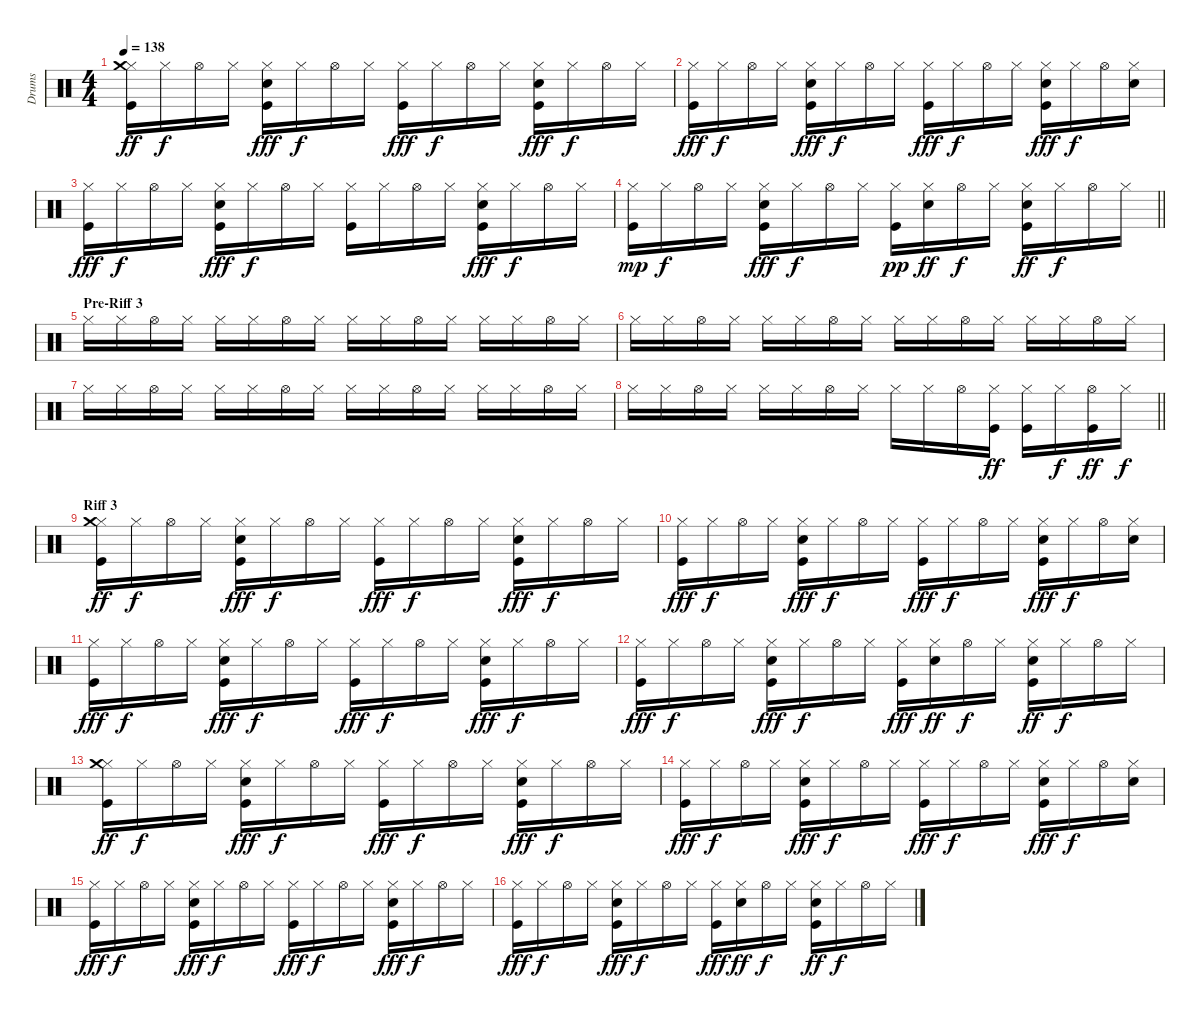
\track ("Drums" "Drums") {instrument percussion}
\staff {score}
\articulation defaults
\ts (4 4)
\tempo 138
\clef neutral
\ks c
("Kick (hit)" "Hi-Hat (closed)" "Crash medium (hit)").16{dy ff} "Hi-Hat (closed)".16{dy f} "Hi-Hat (open)".16 "Hi-Hat (closed)".16 ("Kick (hit)" "Electric Snare (hit)" "Hi-Hat (closed)").16{dy fff} "Hi-Hat (closed)".16{dy f} "Hi-Hat (open)".16 "Hi-Hat (closed)".16 ("Kick (hit)" "Hi-Hat (closed)").16{dy fff} "Hi-Hat (closed)".16{dy f} "Hi-Hat (open)".16 "Hi-Hat (closed)".16 ("Kick (hit)" "Electric Snare (hit)" "Hi-Hat (closed)").16{dy fff} "Hi-Hat (closed)".16{dy f} "Hi-Hat (open)".16 "Hi-Hat (closed)".16 |
("Kick (hit)" "Hi-Hat (closed)").16{dy fff} "Hi-Hat (closed)".16{dy f} "Hi-Hat (open)".16 "Hi-Hat (closed)".16 ("Kick (hit)" "Electric Snare (hit)" "Hi-Hat (closed)").16{dy fff} "Hi-Hat (closed)".16{dy f} "Hi-Hat (open)".16 "Hi-Hat (closed)".16 ("Kick (hit)" "Hi-Hat (closed)").16{dy fff} "Hi-Hat (closed)".16{dy f} "Hi-Hat (open)".16 "Hi-Hat (closed)".16 ("Kick (hit)" "Electric Snare (hit)" "Hi-Hat (closed)").16{dy fff} "Hi-Hat (closed)".16{dy f} "Hi-Hat (open)".16 ("Electric Snare (hit)" "Hi-Hat (closed)").16 |
("Kick (hit)" "Hi-Hat (closed)").16{dy fff} "Hi-Hat (closed)".16{dy f} "Hi-Hat (open)".16 "Hi-Hat (closed)".16 ("Kick (hit)" "Electric Snare (hit)" "Hi-Hat (closed)").16{dy fff} "Hi-Hat (closed)".16{dy f} "Hi-Hat (open)".16 "Hi-Hat (closed)".16 ("Kick (hit)" "Hi-Hat (closed)").16 "Hi-Hat (closed)".16 "Hi-Hat (open)".16 "Hi-Hat (closed)".16 ("Kick (hit)" "Electric Snare (hit)" "Hi-Hat (closed)").16{dy fff} "Hi-Hat (closed)".16{dy f} "Hi-Hat (open)".16 "Hi-Hat (closed)".16 |
\barLineRight lightlight
("Kick (hit)" "Hi-Hat (closed)").16{dy mp} "Hi-Hat (closed)".16{dy f} "Hi-Hat (open)".16 "Hi-Hat (closed)".16 ("Kick (hit)" "Electric Snare (hit)" "Hi-Hat (closed)").16{dy fff} "Hi-Hat (closed)".16{dy f} "Hi-Hat (open)".16 "Hi-Hat (closed)".16 ("Kick (hit)" "Hi-Hat (closed)").16{dy pp} ("Electric Snare (hit)" "Hi-Hat (closed)").16{dy ff} "Hi-Hat (open)".16{dy f} "Hi-Hat (closed)".16 ("Kick (hit)" "Electric Snare (hit)" "Hi-Hat (closed)").16{dy ff} "Hi-Hat (closed)".16{dy f} "Hi-Hat (open)".16 "Hi-Hat (closed)".16 |
\section ("" "Pre-Riff 3")
"Hi-Hat (closed)".16 "Hi-Hat (closed)".16 "Hi-Hat (open)".16 "Hi-Hat (closed)".16 "Hi-Hat (closed)".16 "Hi-Hat (closed)".16 "Hi-Hat (open)".16 "Hi-Hat (closed)".16 "Hi-Hat (closed)".16 "Hi-Hat (closed)".16 "Hi-Hat (open)".16 "Hi-Hat (closed)".16 "Hi-Hat (closed)".16 "Hi-Hat (closed)".16 "Hi-Hat (open)".16 "Hi-Hat (closed)".16 |
"Hi-Hat (closed)".16 "Hi-Hat (closed)".16 "Hi-Hat (open)".16 "Hi-Hat (closed)".16 "Hi-Hat (closed)".16 "Hi-Hat (closed)".16 "Hi-Hat (open)".16 "Hi-Hat (closed)".16 "Hi-Hat (closed)".16 "Hi-Hat (closed)".16 "Hi-Hat (open)".16 "Hi-Hat (closed)".16 "Hi-Hat (closed)".16 "Hi-Hat (closed)".16 "Hi-Hat (open)".16 "Hi-Hat (closed)".16 |
"Hi-Hat (closed)".16 "Hi-Hat (closed)".16 "Hi-Hat (open)".16 "Hi-Hat (closed)".16 "Hi-Hat (closed)".16 "Hi-Hat (closed)".16 "Hi-Hat (open)".16 "Hi-Hat (closed)".16 "Hi-Hat (closed)".16 "Hi-Hat (closed)".16 "Hi-Hat (open)".16 "Hi-Hat (closed)".16 "Hi-Hat (closed)".16 "Hi-Hat (closed)".16 "Hi-Hat (open)".16 "Hi-Hat (closed)".16 |
\barLineRight lightlight "Hi-Hat (closed)".16 "Hi-Hat (closed)".16 "Hi-Hat (open)".16 "Hi-Hat (closed)".16 "Hi-Hat (closed)".16 "Hi-Hat (closed)".16 "Hi-Hat (open)".16 "Hi-Hat (closed)".16 "Hi-Hat (closed)".16 "Hi-Hat (closed)".16 "Hi-Hat (open)".16
("Kick (hit)" "Hi-Hat (closed)").16{dy ff} ("Kick (hit)" "Hi-Hat (closed)").16 "Hi-Hat (closed)".16{dy f} ("Kick (hit)" "Hi-Hat (open)").16{dy ff} "Hi-Hat (closed)".16{dy f} |
\section ("" "Riff 3")
("Kick (hit)" "Hi-Hat (closed)" "Crash medium (hit)").16{dy ff} "Hi-Hat (closed)".16{dy f} "Hi-Hat (open)".16 "Hi-Hat (closed)".16 ("Kick (hit)" "Electric Snare (hit)" "Hi-Hat (closed)").16{dy fff} "Hi-Hat (closed)".16{dy f} "Hi-Hat (open)".16 "Hi-Hat (closed)".16 ("Kick (hit)" "Hi-Hat (closed)").16{dy fff} "Hi-Hat (closed)".16{dy f} "Hi-Hat (open)".16 "Hi-Hat (closed)".16 ("Kick (hit)" "Electric Snare (hit)" "Hi-Hat (closed)").16{dy fff} "Hi-Hat (closed)".16{dy f} "Hi-Hat (open)".16 "Hi-Hat (closed)".16 |
("Kick (hit)" "Hi-Hat (closed)").16{dy fff} "Hi-Hat (closed)".16{dy f} "Hi-Hat (open)".16 "Hi-Hat (closed)".16 ("Kick (hit)" "Electric Snare (hit)" "Hi-Hat (closed)").16{dy fff} "Hi-Hat (closed)".16{dy f} "Hi-Hat (open)".16 "Hi-Hat (closed)".16 ("Kick (hit)" "Hi-Hat (closed)").16{dy fff} "Hi-Hat (closed)".16{dy f} "Hi-Hat (open)".16 "Hi-Hat (closed)".16 ("Kick (hit)" "Electric Snare (hit)" "Hi-Hat (closed)").16{dy fff} "Hi-Hat (closed)".16{dy f} "Hi-Hat (open)".16 ("Electric Snare (hit)" "Hi-Hat (closed)").16 |
("Kick (hit)" "Hi-Hat (closed)").16{dy fff} "Hi-Hat (closed)".16{dy f} "Hi-Hat (open)".16 "Hi-Hat (closed)".16 ("Kick (hit)" "Electric Snare (hit)" "Hi-Hat (closed)").16{dy fff} "Hi-Hat (closed)".16{dy f} "Hi-Hat (open)".16 "Hi-Hat (closed)".16 ("Kick (hit)" "Hi-Hat (closed)").16{dy fff} "Hi-Hat (closed)".16{dy f} "Hi-Hat (open)".16 "Hi-Hat (closed)".16 ("Kick (hit)" "Electric Snare (hit)" "Hi-Hat (closed)").16{dy fff} "Hi-Hat (closed)".16{dy f} "Hi-Hat (open)".16 "Hi-Hat (closed)".16 |
("Kick (hit)" "Hi-Hat (closed)").16{dy fff} "Hi-Hat (closed)".16{dy f} "Hi-Hat (open)".16 "Hi-Hat (closed)".16 ("Kick (hit)" "Electric Snare (hit)" "Hi-Hat (closed)").16{dy fff} "Hi-Hat (closed)".16{dy f} "Hi-Hat (open)".16 "Hi-Hat (closed)".16 ("Kick (hit)" "Hi-Hat (closed)").16{dy fff} ("Electric Snare (hit)" "Hi-Hat (closed)").16{dy ff} "Hi-Hat (open)".16{dy f} "Hi-Hat (closed)".16 ("Kick (hit)" "Electric Snare (hit)" "Hi-Hat (closed)").16{dy ff} "Hi-Hat (closed)".16{dy f} "Hi-Hat (open)".16 "Hi-Hat (closed)".16 |
("Kick (hit)" "Hi-Hat (closed)" "Crash medium (hit)").16{dy ff} "Hi-Hat (closed)".16{dy f} "Hi-Hat (open)".16 "Hi-Hat (closed)".16 ("Kick (hit)" "Electric Snare (hit)" "Hi-Hat (closed)").16{dy fff} "Hi-Hat (closed)".16{dy f} "Hi-Hat (open)".16 "Hi-Hat (closed)".16 ("Kick (hit)" "Hi-Hat (closed)").16{dy fff} "Hi-Hat (closed)".16{dy f} "Hi-Hat (open)".16 "Hi-Hat (closed)".16 ("Kick (hit)" "Electric Snare (hit)" "Hi-Hat (closed)").16{dy fff} "Hi-Hat (closed)".16{dy f} "Hi-Hat (open)".16 "Hi-Hat (closed)".16 |
("Kick (hit)" "Hi-Hat (closed)").16{dy fff} "Hi-Hat (closed)".16{dy f} "Hi-Hat (open)".16 "Hi-Hat (closed)".16 ("Kick (hit)" "Electric Snare (hit)" "Hi-Hat (closed)").16{dy fff} "Hi-Hat (closed)".16{dy f} "Hi-Hat (open)".16 "Hi-Hat (closed)".16 ("Kick (hit)" "Hi-Hat (closed)").16{dy fff} "Hi-Hat (closed)".16{dy f} "Hi-Hat (open)".16 "Hi-Hat (closed)".16 ("Kick (hit)" "Electric Snare (hit)" "Hi-Hat (closed)").16{dy fff} "Hi-Hat (closed)".16{dy f} "Hi-Hat (open)".16 ("Electric Snare (hit)" "Hi-Hat (closed)").16 |
("Kick (hit)" "Hi-Hat (closed)").16{dy fff} "Hi-Hat (closed)".16{dy f} "Hi-Hat (open)".16 "Hi-Hat (closed)".16 ("Kick (hit)" "Electric Snare (hit)" "Hi-Hat (closed)").16{dy fff} "Hi-Hat (closed)".16{dy f} "Hi-Hat (open)".16 "Hi-Hat (closed)".16 ("Kick (hit)" "Hi-Hat (closed)").16{dy fff} "Hi-Hat (closed)".16{dy f} "Hi-Hat (open)".16 "Hi-Hat (closed)".16 ("Kick (hit)" "Electric Snare (hit)" "Hi-Hat (closed)").16{dy fff} "Hi-Hat (closed)".16{dy f} "Hi-Hat (open)".16 "Hi-Hat (closed)".16 |
("Kick (hit)" "Hi-Hat (closed)").16{dy fff} "Hi-Hat (closed)".16{dy f} "Hi-Hat (open)".16 "Hi-Hat (closed)".16 ("Kick (hit)" "Electric Snare (hit)" "Hi-Hat (closed)").16{dy fff} "Hi-Hat (closed)".16{dy f} "Hi-Hat (open)".16 "Hi-Hat (closed)".16 ("Kick (hit)" "Hi-Hat (closed)").16{dy fff} ("Electric Snare (hit)" "Hi-Hat (closed)").16{dy ff} "Hi-Hat (open)".16{dy f} "Hi-Hat (closed)".16 ("Kick (hit)" "Electric Snare (hit)" "Hi-Hat (closed)").16{dy ff} "Hi-Hat (closed)".16{dy f} "Hi-Hat (open)".16 "Hi-Hat (closed)".16
